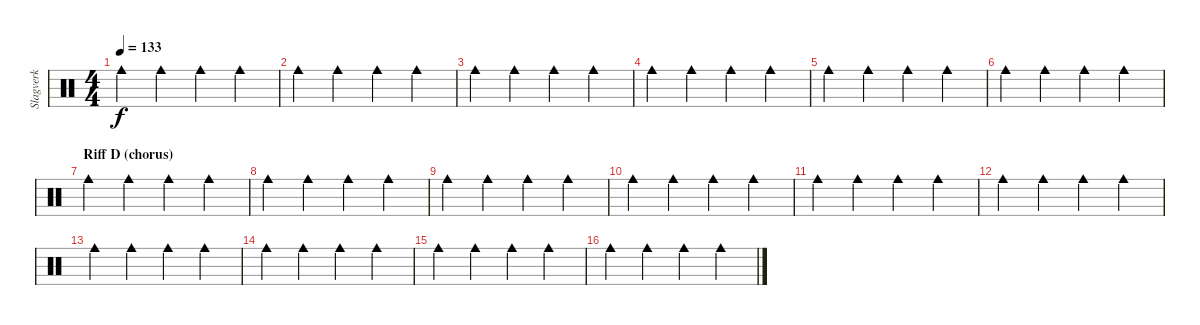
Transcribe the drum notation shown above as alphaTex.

\track ("Slagverk" "Slagverk") {instrument percussion}
\staff {score}
\articulation defaults
\ts (4 4)
\tempo 133
\clef neutral
\ks c "Cowbell medium (hit)".4{dy f} "Cowbell medium (hit)".4 "Cowbell medium (hit)".4 "Cowbell medium (hit)".4
|
"Cowbell medium (hit)".4 "Cowbell medium (hit)".4 "Cowbell medium (hit)".4 "Cowbell medium (hit)".4 |
"Cowbell medium (hit)".4 "Cowbell medium (hit)".4 "Cowbell medium (hit)".4 "Cowbell medium (hit)".4 |
"Cowbell medium (hit)".4 "Cowbell medium (hit)".4 "Cowbell medium (hit)".4 "Cowbell medium (hit)".4 |
"Cowbell medium (hit)".4 "Cowbell medium (hit)".4 "Cowbell medium (hit)".4 "Cowbell medium (hit)".4 |
"Cowbell medium (hit)".4 "Cowbell medium (hit)".4 "Cowbell medium (hit)".4 "Cowbell medium (hit)".4 |
\section ("" "Riff D (chorus)")
"Cowbell medium (hit)".4 "Cowbell medium (hit)".4 "Cowbell medium (hit)".4 "Cowbell medium (hit)".4 |
"Cowbell medium (hit)".4 "Cowbell medium (hit)".4 "Cowbell medium (hit)".4 "Cowbell medium (hit)".4 |
"Cowbell medium (hit)".4 "Cowbell medium (hit)".4 "Cowbell medium (hit)".4 "Cowbell medium (hit)".4 |
"Cowbell medium (hit)".4 "Cowbell medium (hit)".4 "Cowbell medium (hit)".4 "Cowbell medium (hit)".4 |
"Cowbell medium (hit)".4 "Cowbell medium (hit)".4 "Cowbell medium (hit)".4 "Cowbell medium (hit)".4 |
"Cowbell medium (hit)".4 "Cowbell medium (hit)".4 "Cowbell medium (hit)".4 "Cowbell medium (hit)".4 |
"Cowbell medium (hit)".4 "Cowbell medium (hit)".4 "Cowbell medium (hit)".4 "Cowbell medium (hit)".4 |
"Cowbell medium (hit)".4 "Cowbell medium (hit)".4 "Cowbell medium (hit)".4 "Cowbell medium (hit)".4 |
"Cowbell medium (hit)".4 "Cowbell medium (hit)".4 "Cowbell medium (hit)".4 "Cowbell medium (hit)".4 |
"Cowbell medium (hit)".4 "Cowbell medium (hit)".4 "Cowbell medium (hit)".4 "Cowbell medium (hit)".4
